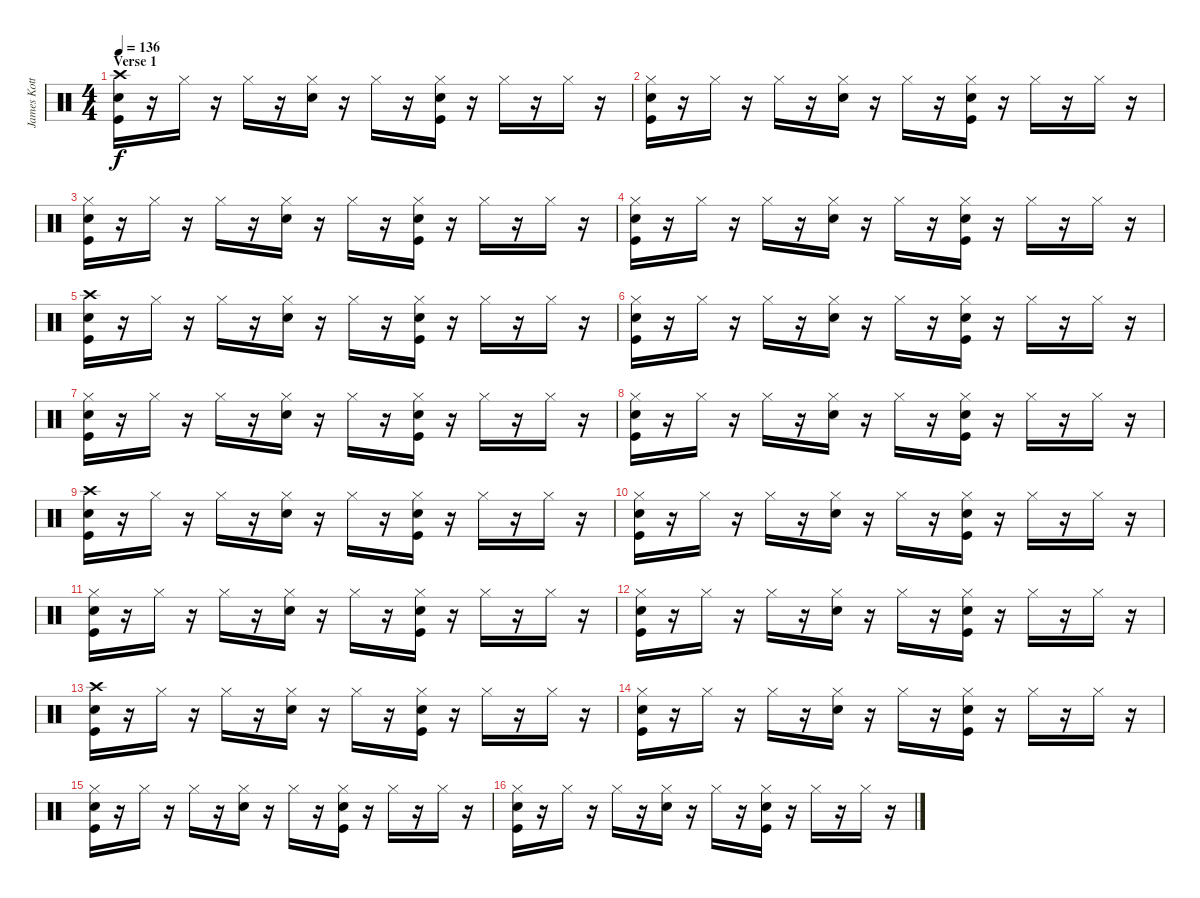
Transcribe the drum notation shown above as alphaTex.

\track ("James Kottak" "James Kott") {instrument percussion}
\staff {score}
\articulation defaults
\ts (4 4)
\section ("" "Verse 1")
\tempo 136
\clef neutral
\ks c
("Crash high (hit)" "Snare (hit) 2" "Kick (hit)").16{dy f} r.16 "Hi-Hat (closed)".16 r.16 "Hi-Hat (closed)".16 r.16 ("Hi-Hat (closed)" "Snare (hit) 2").16 r.16 "Hi-Hat (closed)".16 r.16 ("Hi-Hat (closed)" "Snare (hit) 2" "Kick (hit)").16 r.16 "Hi-Hat (closed)".16 r.16 "Hi-Hat (closed)".16 r.16 |
("Hi-Hat (closed)" "Snare (hit) 2" "Kick (hit)").16 r.16 "Hi-Hat (closed)".16 r.16 "Hi-Hat (closed)".16 r.16 ("Hi-Hat (closed)" "Snare (hit) 2").16 r.16 "Hi-Hat (closed)".16 r.16 ("Hi-Hat (closed)" "Snare (hit) 2" "Kick (hit)").16 r.16 "Hi-Hat (closed)".16 r.16 "Hi-Hat (closed)".16 r.16 |
("Hi-Hat (closed)" "Snare (hit) 2" "Kick (hit)").16 r.16 "Hi-Hat (closed)".16 r.16 "Hi-Hat (closed)".16 r.16 ("Hi-Hat (closed)" "Snare (hit) 2").16 r.16 "Hi-Hat (closed)".16 r.16 ("Hi-Hat (closed)" "Snare (hit) 2" "Kick (hit)").16 r.16 "Hi-Hat (closed)".16 r.16 "Hi-Hat (closed)".16 r.16 |
("Hi-Hat (closed)" "Snare (hit) 2" "Kick (hit)").16 r.16 "Hi-Hat (closed)".16 r.16 "Hi-Hat (closed)".16 r.16 ("Hi-Hat (closed)" "Snare (hit) 2").16 r.16 "Hi-Hat (closed)".16 r.16 ("Hi-Hat (closed)" "Snare (hit) 2" "Kick (hit)").16 r.16 "Hi-Hat (closed)".16 r.16 "Hi-Hat (closed)".16 r.16 |
("Crash high (hit)" "Snare (hit) 2" "Kick (hit)").16 r.16 "Hi-Hat (closed)".16 r.16 "Hi-Hat (closed)".16 r.16 ("Hi-Hat (closed)" "Snare (hit) 2").16 r.16 "Hi-Hat (closed)".16 r.16 ("Hi-Hat (closed)" "Snare (hit) 2" "Kick (hit)").16 r.16 "Hi-Hat (closed)".16 r.16 "Hi-Hat (closed)".16 r.16 |
("Hi-Hat (closed)" "Snare (hit) 2" "Kick (hit)").16 r.16 "Hi-Hat (closed)".16 r.16 "Hi-Hat (closed)".16 r.16 ("Hi-Hat (closed)" "Snare (hit) 2").16 r.16 "Hi-Hat (closed)".16 r.16 ("Hi-Hat (closed)" "Snare (hit) 2" "Kick (hit)").16 r.16 "Hi-Hat (closed)".16 r.16 "Hi-Hat (closed)".16 r.16 |
("Hi-Hat (closed)" "Snare (hit) 2" "Kick (hit)").16 r.16 "Hi-Hat (closed)".16 r.16 "Hi-Hat (closed)".16 r.16 ("Hi-Hat (closed)" "Snare (hit) 2").16 r.16 "Hi-Hat (closed)".16 r.16 ("Hi-Hat (closed)" "Snare (hit) 2" "Kick (hit)").16 r.16 "Hi-Hat (closed)".16 r.16 "Hi-Hat (closed)".16 r.16 |
("Hi-Hat (closed)" "Snare (hit) 2" "Kick (hit)").16 r.16 "Hi-Hat (closed)".16 r.16 "Hi-Hat (closed)".16 r.16 ("Hi-Hat (closed)" "Snare (hit) 2").16 r.16 "Hi-Hat (closed)".16 r.16 ("Hi-Hat (closed)" "Snare (hit) 2" "Kick (hit)").16 r.16 "Hi-Hat (closed)".16 r.16 "Hi-Hat (closed)".16 r.16 |
("Crash high (hit)" "Snare (hit) 2" "Kick (hit)").16 r.16 "Hi-Hat (closed)".16 r.16 "Hi-Hat (closed)".16 r.16 ("Hi-Hat (closed)" "Snare (hit) 2").16 r.16 "Hi-Hat (closed)".16 r.16 ("Hi-Hat (closed)" "Snare (hit) 2" "Kick (hit)").16 r.16 "Hi-Hat (closed)".16 r.16 "Hi-Hat (closed)".16 r.16 |
("Hi-Hat (closed)" "Snare (hit) 2" "Kick (hit)").16 r.16 "Hi-Hat (closed)".16 r.16 "Hi-Hat (closed)".16 r.16 ("Hi-Hat (closed)" "Snare (hit) 2").16 r.16 "Hi-Hat (closed)".16 r.16 ("Hi-Hat (closed)" "Snare (hit) 2" "Kick (hit)").16 r.16 "Hi-Hat (closed)".16 r.16 "Hi-Hat (closed)".16 r.16 |
("Hi-Hat (closed)" "Snare (hit) 2" "Kick (hit)").16 r.16 "Hi-Hat (closed)".16 r.16 "Hi-Hat (closed)".16 r.16 ("Hi-Hat (closed)" "Snare (hit) 2").16 r.16 "Hi-Hat (closed)".16 r.16 ("Hi-Hat (closed)" "Snare (hit) 2" "Kick (hit)").16 r.16 "Hi-Hat (closed)".16 r.16 "Hi-Hat (closed)".16 r.16 |
("Hi-Hat (closed)" "Snare (hit) 2" "Kick (hit)").16 r.16 "Hi-Hat (closed)".16 r.16 "Hi-Hat (closed)".16 r.16 ("Hi-Hat (closed)" "Snare (hit) 2").16 r.16 "Hi-Hat (closed)".16 r.16 ("Hi-Hat (closed)" "Snare (hit) 2" "Kick (hit)").16 r.16 "Hi-Hat (closed)".16 r.16 "Hi-Hat (closed)".16 r.16 |
("Crash high (hit)" "Snare (hit) 2" "Kick (hit)").16 r.16 "Hi-Hat (closed)".16 r.16 "Hi-Hat (closed)".16 r.16 ("Hi-Hat (closed)" "Snare (hit) 2").16 r.16 "Hi-Hat (closed)".16 r.16 ("Hi-Hat (closed)" "Snare (hit) 2" "Kick (hit)").16 r.16 "Hi-Hat (closed)".16 r.16 "Hi-Hat (closed)".16 r.16 |
("Hi-Hat (closed)" "Snare (hit) 2" "Kick (hit)").16 r.16 "Hi-Hat (closed)".16 r.16 "Hi-Hat (closed)".16 r.16 ("Hi-Hat (closed)" "Snare (hit) 2").16 r.16 "Hi-Hat (closed)".16 r.16 ("Hi-Hat (closed)" "Snare (hit) 2" "Kick (hit)").16 r.16 "Hi-Hat (closed)".16 r.16 "Hi-Hat (closed)".16 r.16 |
("Hi-Hat (closed)" "Snare (hit) 2" "Kick (hit)").16 r.16 "Hi-Hat (closed)".16 r.16 "Hi-Hat (closed)".16 r.16 ("Hi-Hat (closed)" "Snare (hit) 2").16 r.16 "Hi-Hat (closed)".16 r.16 ("Hi-Hat (closed)" "Snare (hit) 2" "Kick (hit)").16 r.16 "Hi-Hat (closed)".16 r.16 "Hi-Hat (closed)".16 r.16 |
("Hi-Hat (closed)" "Snare (hit) 2" "Kick (hit)").16 r.16 "Hi-Hat (closed)".16 r.16 "Hi-Hat (closed)".16 r.16 ("Hi-Hat (closed)" "Snare (hit) 2").16 r.16 "Hi-Hat (closed)".16 r.16 ("Hi-Hat (closed)" "Snare (hit) 2" "Kick (hit)").16 r.16 "Hi-Hat (closed)".16 r.16 "Hi-Hat (closed)".16 r.16
